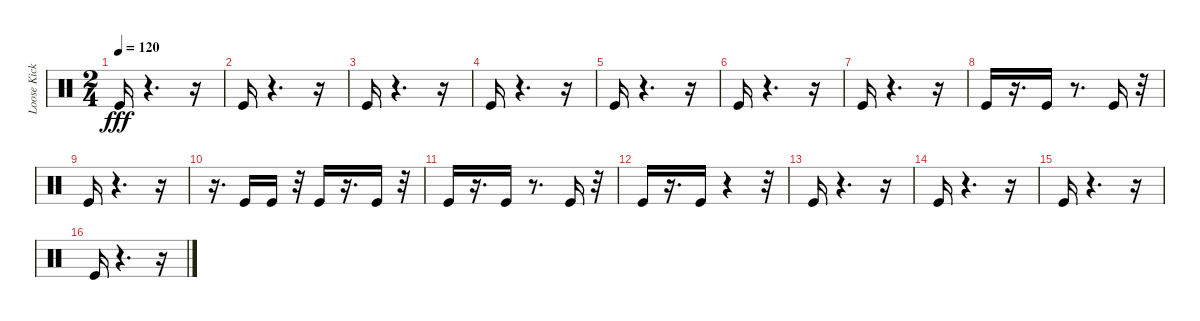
\track ("Loose Kick (1) (1) (1) (1)" "Loose Kick") {instrument percussion}
\staff {score}
\articulation defaults
\ts (2 4)
\tempo 120
\clef neutral
\ks c "Kick (hit)".16{dy fff}
r.4{d} r.16 |
"Kick (hit)".16 r.4{d} r.16 |
"Kick (hit)".16 r.4{d} r.16 |
"Kick (hit)".16 r.4{d} r.16 |
"Kick (hit)".16 r.4{d} r.16 |
"Kick (hit)".16 r.4{d} r.16 |
"Kick (hit)".16 r.4{d} r.16 |
"Kick (hit)".16 r.16{d} "Kick (hit)".16 r.8{d} "Kick (hit)".16 r.32 |
"Kick (hit)".16 r.4{d} r.16 |
r.16{d} "Kick (hit)".16 "Kick (hit)".16 r.32 "Kick (hit)".16 r.16{d} "Kick (hit)".16 r.32 |
"Kick (hit)".16 r.16{d} "Kick (hit)".16 r.8{d} "Kick (hit)".16 r.32 |
"Kick (hit)".16 r.16{d} "Kick (hit)".16 r.4 r.32 |
"Kick (hit)".16 r.4{d} r.16 |
"Kick (hit)".16 r.4{d} r.16 |
"Kick (hit)".16 r.4{d} r.16 |
"Kick (hit)".16 r.4{d} r.16
